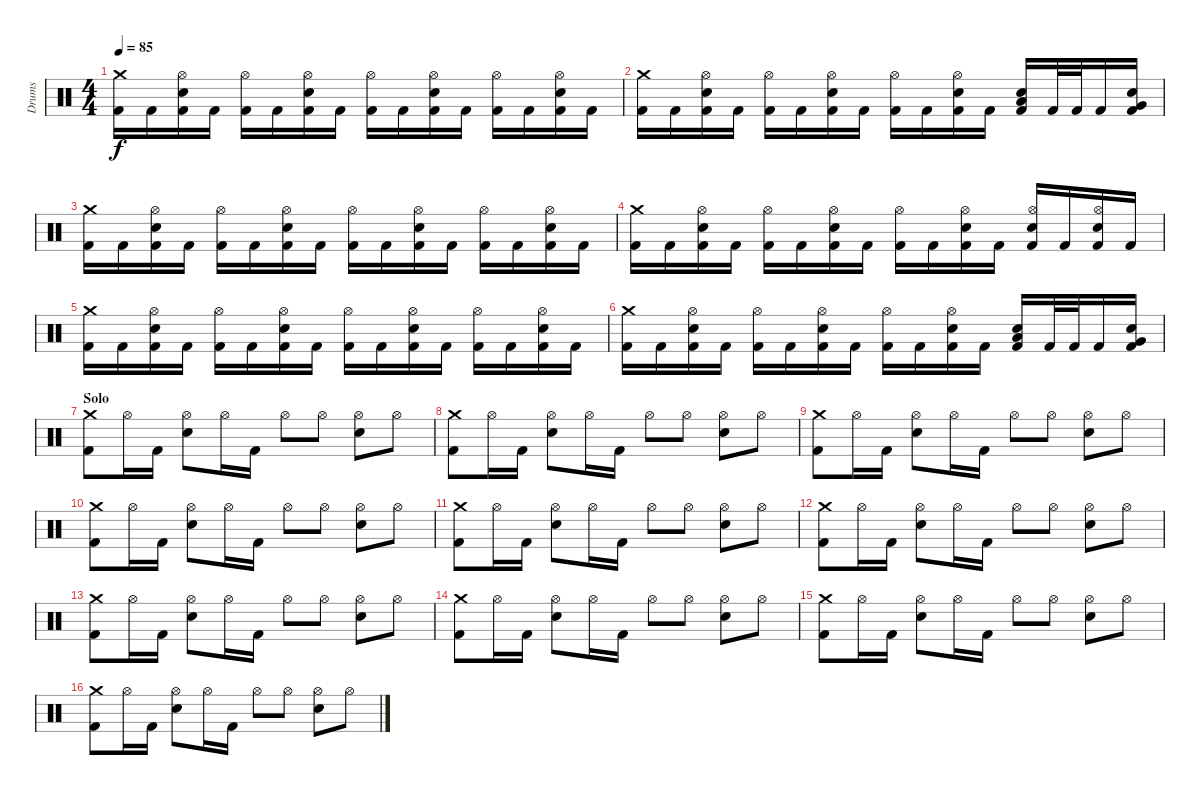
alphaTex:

\track ("Drums" "Drums") {instrument percussion}
\staff {score}
\articulation defaults
\ts (4 4)
\tempo 85
\clef neutral
\ks c
("Crash medium (hit)" "Kick (hit) 2").16{dy f} "Kick (hit) 2".16 ("Hi-Hat (open)" "Electric Snare (hit)" "Kick (hit) 2").16 "Kick (hit) 2".16 ("Hi-Hat (open)" "Kick (hit) 2").16 "Kick (hit) 2".16 ("Hi-Hat (open)" "Electric Snare (hit)" "Kick (hit) 2").16 "Kick (hit) 2".16 ("Hi-Hat (open)" "Kick (hit) 2").16 "Kick (hit) 2".16 ("Hi-Hat (open)" "Electric Snare (hit)" "Kick (hit) 2").16 "Kick (hit) 2".16 ("Hi-Hat (open)" "Kick (hit) 2").16 "Kick (hit) 2".16 ("Hi-Hat (open)" "Electric Snare (hit)" "Kick (hit) 2").16 "Kick (hit) 2".16 |
("Crash medium (hit)" "Kick (hit) 2").16 "Kick (hit) 2".16 ("Hi-Hat (open)" "Electric Snare (hit)" "Kick (hit) 2").16 "Kick (hit) 2".16 ("Hi-Hat (open)" "Kick (hit) 2").16 "Kick (hit) 2".16 ("Hi-Hat (open)" "Electric Snare (hit)" "Kick (hit) 2").16 "Kick (hit) 2".16 ("Hi-Hat (open)" "Kick (hit) 2").16 "Kick (hit) 2".16 ("Hi-Hat (open)" "Electric Snare (hit)" "Kick (hit) 2").16 "Kick (hit) 2".16 ("Electric Snare (hit)" "Low Tom (hit)" "Kick (hit) 2").16 "Kick (hit) 2".32 "Kick (hit) 2".32 "Kick (hit) 2".16 ("Electric Snare (hit)" "Very Low Tom (hit)" "Kick (hit) 2").16 |
("Crash medium (hit)" "Kick (hit) 2").16 "Kick (hit) 2".16 ("Hi-Hat (open)" "Electric Snare (hit)" "Kick (hit) 2").16 "Kick (hit) 2".16 ("Hi-Hat (open)" "Kick (hit) 2").16 "Kick (hit) 2".16 ("Hi-Hat (open)" "Electric Snare (hit)" "Kick (hit) 2").16 "Kick (hit) 2".16 ("Hi-Hat (open)" "Kick (hit) 2").16 "Kick (hit) 2".16 ("Hi-Hat (open)" "Electric Snare (hit)" "Kick (hit) 2").16 "Kick (hit) 2".16 ("Hi-Hat (open)" "Kick (hit) 2").16 "Kick (hit) 2".16 ("Hi-Hat (open)" "Electric Snare (hit)" "Kick (hit) 2").16 "Kick (hit) 2".16 |
("Crash medium (hit)" "Kick (hit) 2").16 "Kick (hit) 2".16 ("Hi-Hat (open)" "Electric Snare (hit)" "Kick (hit) 2").16 "Kick (hit) 2".16 ("Hi-Hat (open)" "Kick (hit) 2").16 "Kick (hit) 2".16 ("Hi-Hat (open)" "Electric Snare (hit)" "Kick (hit) 2").16 "Kick (hit) 2".16 ("Hi-Hat (open)" "Kick (hit) 2").16 "Kick (hit) 2".16 ("Hi-Hat (open)" "Electric Snare (hit)" "Kick (hit) 2").16 "Kick (hit) 2".16 ("Hi-Hat (open)" "Electric Snare (hit)" "Kick (hit) 2").16 "Kick (hit) 2".16 ("Hi-Hat (open)" "Electric Snare (hit)" "Kick (hit) 2").16 "Kick (hit) 2".16 |
("Crash medium (hit)" "Kick (hit) 2").16 "Kick (hit) 2".16 ("Hi-Hat (open)" "Electric Snare (hit)" "Kick (hit) 2").16 "Kick (hit) 2".16 ("Hi-Hat (open)" "Kick (hit) 2").16 "Kick (hit) 2".16 ("Hi-Hat (open)" "Electric Snare (hit)" "Kick (hit) 2").16 "Kick (hit) 2".16 ("Hi-Hat (open)" "Kick (hit) 2").16 "Kick (hit) 2".16 ("Hi-Hat (open)" "Electric Snare (hit)" "Kick (hit) 2").16 "Kick (hit) 2".16 ("Hi-Hat (open)" "Kick (hit) 2").16 "Kick (hit) 2".16 ("Hi-Hat (open)" "Electric Snare (hit)" "Kick (hit) 2").16 "Kick (hit) 2".16 |
("Crash medium (hit)" "Kick (hit) 2").16 "Kick (hit) 2".16 ("Hi-Hat (open)" "Electric Snare (hit)" "Kick (hit) 2").16 "Kick (hit) 2".16 ("Hi-Hat (open)" "Kick (hit) 2").16 "Kick (hit) 2".16 ("Hi-Hat (open)" "Electric Snare (hit)" "Kick (hit) 2").16 "Kick (hit) 2".16 ("Hi-Hat (open)" "Kick (hit) 2").16 "Kick (hit) 2".16 ("Hi-Hat (open)" "Electric Snare (hit)" "Kick (hit) 2").16 "Kick (hit) 2".16 ("Electric Snare (hit)" "Low Tom (hit)" "Kick (hit) 2").16 "Kick (hit) 2".32 "Kick (hit) 2".32 "Kick (hit) 2".16 ("Electric Snare (hit)" "Very Low Tom (hit)" "Kick (hit) 2").16 |
\section ("" "Solo")
("Crash medium (hit)" "Kick (hit) 2").8 "Hi-Hat (open)".16 "Kick (hit) 2".16 ("Hi-Hat (open)" "Electric Snare (hit)").8 "Hi-Hat (open)".16 "Kick (hit) 2".16 "Hi-Hat (open)".8 "Hi-Hat (open)".8 ("Hi-Hat (open)" "Electric Snare (hit)").8 "Hi-Hat (open)".8 |
("Crash medium (hit)" "Kick (hit) 2").8 "Hi-Hat (open)".16 "Kick (hit) 2".16 ("Hi-Hat (open)" "Electric Snare (hit)").8 "Hi-Hat (open)".16 "Kick (hit) 2".16 "Hi-Hat (open)".8 "Hi-Hat (open)".8 ("Hi-Hat (open)" "Electric Snare (hit)").8 "Hi-Hat (open)".8 |
("Crash medium (hit)" "Kick (hit) 2").8 "Hi-Hat (open)".16 "Kick (hit) 2".16 ("Hi-Hat (open)" "Electric Snare (hit)").8 "Hi-Hat (open)".16 "Kick (hit) 2".16 "Hi-Hat (open)".8 "Hi-Hat (open)".8 ("Hi-Hat (open)" "Electric Snare (hit)").8 "Hi-Hat (open)".8 |
("Crash medium (hit)" "Kick (hit) 2").8 "Hi-Hat (open)".16 "Kick (hit) 2".16 ("Hi-Hat (open)" "Electric Snare (hit)").8 "Hi-Hat (open)".16 "Kick (hit) 2".16 "Hi-Hat (open)".8 "Hi-Hat (open)".8 ("Hi-Hat (open)" "Electric Snare (hit)").8 "Hi-Hat (open)".8 |
("Crash medium (hit)" "Kick (hit) 2").8 "Hi-Hat (open)".16 "Kick (hit) 2".16 ("Hi-Hat (open)" "Electric Snare (hit)").8 "Hi-Hat (open)".16 "Kick (hit) 2".16 "Hi-Hat (open)".8 "Hi-Hat (open)".8 ("Hi-Hat (open)" "Electric Snare (hit)").8 "Hi-Hat (open)".8 |
("Crash medium (hit)" "Kick (hit) 2").8 "Hi-Hat (open)".16 "Kick (hit) 2".16 ("Hi-Hat (open)" "Electric Snare (hit)").8 "Hi-Hat (open)".16 "Kick (hit) 2".16 "Hi-Hat (open)".8 "Hi-Hat (open)".8 ("Hi-Hat (open)" "Electric Snare (hit)").8 "Hi-Hat (open)".8 |
("Crash medium (hit)" "Kick (hit) 2").8 "Hi-Hat (open)".16 "Kick (hit) 2".16 ("Hi-Hat (open)" "Electric Snare (hit)").8 "Hi-Hat (open)".16 "Kick (hit) 2".16 "Hi-Hat (open)".8 "Hi-Hat (open)".8 ("Hi-Hat (open)" "Electric Snare (hit)").8 "Hi-Hat (open)".8 |
("Crash medium (hit)" "Kick (hit) 2").8 "Hi-Hat (open)".16 "Kick (hit) 2".16 ("Hi-Hat (open)" "Electric Snare (hit)").8 "Hi-Hat (open)".16 "Kick (hit) 2".16 "Hi-Hat (open)".8 "Hi-Hat (open)".8 ("Hi-Hat (open)" "Electric Snare (hit)").8 "Hi-Hat (open)".8 |
("Crash medium (hit)" "Kick (hit) 2").8 "Hi-Hat (open)".16 "Kick (hit) 2".16 ("Hi-Hat (open)" "Electric Snare (hit)").8 "Hi-Hat (open)".16 "Kick (hit) 2".16 "Hi-Hat (open)".8 "Hi-Hat (open)".8 ("Hi-Hat (open)" "Electric Snare (hit)").8 "Hi-Hat (open)".8 |
("Crash medium (hit)" "Kick (hit) 2").8 "Hi-Hat (open)".16 "Kick (hit) 2".16 ("Hi-Hat (open)" "Electric Snare (hit)").8 "Hi-Hat (open)".16 "Kick (hit) 2".16 "Hi-Hat (open)".8 "Hi-Hat (open)".8 ("Hi-Hat (open)" "Electric Snare (hit)").8 "Hi-Hat (open)".8
